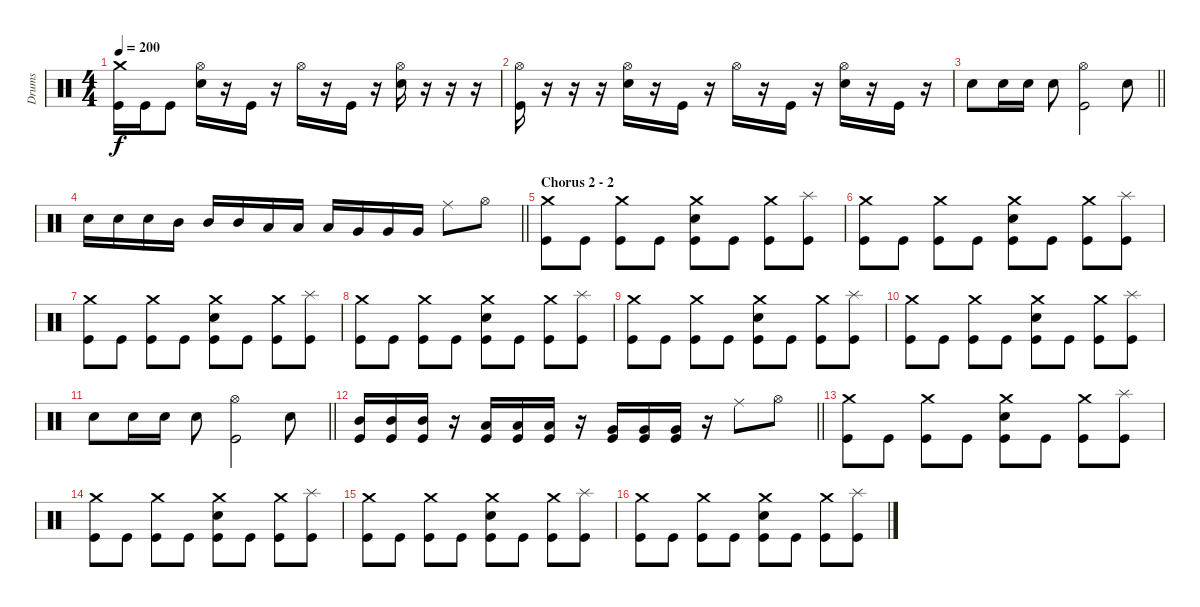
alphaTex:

\track ("Drums" "Drums") {instrument percussion}
\staff {score}
\articulation defaults
\ts (4 4)
\tempo 200
\clef neutral
\ks c
("Crash medium (hit)" "Kick (hit)").16{dy f} "Kick (hit)".16 "Kick (hit)".8 ("Hi-Hat (open)" "Snare (hit) 2").16 r.16 "Kick (hit)".16 r.16 "Hi-Hat (open)".16 r.16 "Kick (hit)".16 r.16 ("Hi-Hat (open)" "Snare (hit) 2").16 r.16 r.16 r.16 |
("Hi-Hat (open)" "Kick (hit)").16 r.16 r.16 r.16 ("Hi-Hat (open)" "Snare (hit) 2").16 r.16 "Kick (hit)".16 r.16 "Hi-Hat (open)".16 r.16 "Kick (hit)".16 r.16 ("Hi-Hat (open)" "Snare (hit) 2").16 r.16 "Kick (hit)".16 r.16 |
\barLineRight lightlight "Snare (hit) 2".8 "Snare (hit) 2".16 "Snare (hit) 2".16 "Snare (hit) 2".8
("Hi-Hat (open)" "Kick (hit)").2 "Snare (hit) 2".8 |
\barLineRight lightlight "Snare (hit) 2".16 "Snare (hit) 2".16 "Snare (hit) 2".16 "Mid Tom (hit)".16 "Mid Tom (hit)".16 "Mid Tom (hit)".16 "Low Tom (hit)".16 "Low Tom (hit)".16 "Low Tom (hit)".16 "Very Low Tom (hit)".16 "Very Low Tom (hit)".16 "Very Low Tom (hit)".16 "Ride (middle)".8 "Hi-Hat (open)".8
|
\section ("" "Chorus 2 - 2")
("Crash medium (hit)" "Kick (hit)").8 "Kick (hit)".8 ("Crash medium (hit)" "Kick (hit)").8 "Kick (hit)".8 ("Crash medium (hit)" "Snare (hit) 2" "Kick (hit)").8 "Kick (hit)".8 ("Crash medium (hit)" "Kick (hit)").8 ("Splash (hit)" "Kick (hit)").8 |
("Crash medium (hit)" "Kick (hit)").8 "Kick (hit)".8 ("Crash medium (hit)" "Kick (hit)").8 "Kick (hit)".8 ("Crash medium (hit)" "Snare (hit) 2" "Kick (hit)").8 "Kick (hit)".8 ("Crash medium (hit)" "Kick (hit)").8 ("Splash (hit)" "Kick (hit)").8 |
("Crash medium (hit)" "Kick (hit)").8 "Kick (hit)".8 ("Crash medium (hit)" "Kick (hit)").8 "Kick (hit)".8 ("Crash medium (hit)" "Snare (hit) 2" "Kick (hit)").8 "Kick (hit)".8 ("Crash medium (hit)" "Kick (hit)").8 ("Splash (hit)" "Kick (hit)").8 |
("Crash medium (hit)" "Kick (hit)").8 "Kick (hit)".8 ("Crash medium (hit)" "Kick (hit)").8 "Kick (hit)".8 ("Crash medium (hit)" "Snare (hit) 2" "Kick (hit)").8 "Kick (hit)".8 ("Crash medium (hit)" "Kick (hit)").8 ("Splash (hit)" "Kick (hit)").8 |
("Crash medium (hit)" "Kick (hit)").8 "Kick (hit)".8 ("Crash medium (hit)" "Kick (hit)").8 "Kick (hit)".8 ("Crash medium (hit)" "Snare (hit) 2" "Kick (hit)").8 "Kick (hit)".8 ("Crash medium (hit)" "Kick (hit)").8 ("Splash (hit)" "Kick (hit)").8 |
("Crash medium (hit)" "Kick (hit)").8 "Kick (hit)".8 ("Crash medium (hit)" "Kick (hit)").8 "Kick (hit)".8 ("Crash medium (hit)" "Snare (hit) 2" "Kick (hit)").8 "Kick (hit)".8 ("Crash medium (hit)" "Kick (hit)").8 ("Splash (hit)" "Kick (hit)").8 |
\barLineRight lightlight "Snare (hit) 2".8 "Snare (hit) 2".16 "Snare (hit) 2".16 "Snare (hit) 2".8
("Hi-Hat (open)" "Kick (hit)").2 "Snare (hit) 2".8 |
\barLineRight lightlight
("Mid Tom (hit)" "Kick (hit)").16 ("Mid Tom (hit)" "Kick (hit)").16 ("Mid Tom (hit)" "Kick (hit)").16 r.16 ("Low Tom (hit)" "Kick (hit)").16 ("Low Tom (hit)" "Kick (hit)").16 ("Low Tom (hit)" "Kick (hit)").16 r.16 ("Very Low Tom (hit)" "Kick (hit)").16 ("Very Low Tom (hit)" "Kick (hit)").16 ("Very Low Tom (hit)" "Kick (hit)").16 r.16 "Ride (middle)".8 "Hi-Hat (open)".8 |
("Crash medium (hit)" "Kick (hit)").8 "Kick (hit)".8 ("Crash medium (hit)" "Kick (hit)").8 "Kick (hit)".8 ("Crash medium (hit)" "Snare (hit) 2" "Kick (hit)").8 "Kick (hit)".8 ("Crash medium (hit)" "Kick (hit)").8 ("Splash (hit)" "Kick (hit)").8 |
("Crash medium (hit)" "Kick (hit)").8 "Kick (hit)".8 ("Crash medium (hit)" "Kick (hit)").8 "Kick (hit)".8 ("Crash medium (hit)" "Snare (hit) 2" "Kick (hit)").8 "Kick (hit)".8 ("Crash medium (hit)" "Kick (hit)").8 ("Splash (hit)" "Kick (hit)").8 |
("Crash medium (hit)" "Kick (hit)").8 "Kick (hit)".8 ("Crash medium (hit)" "Kick (hit)").8 "Kick (hit)".8 ("Crash medium (hit)" "Snare (hit) 2" "Kick (hit)").8 "Kick (hit)".8 ("Crash medium (hit)" "Kick (hit)").8 ("Splash (hit)" "Kick (hit)").8 |
("Crash medium (hit)" "Kick (hit)").8 "Kick (hit)".8 ("Crash medium (hit)" "Kick (hit)").8 "Kick (hit)".8 ("Crash medium (hit)" "Snare (hit) 2" "Kick (hit)").8 "Kick (hit)".8 ("Crash medium (hit)" "Kick (hit)").8 ("Splash (hit)" "Kick (hit)").8
